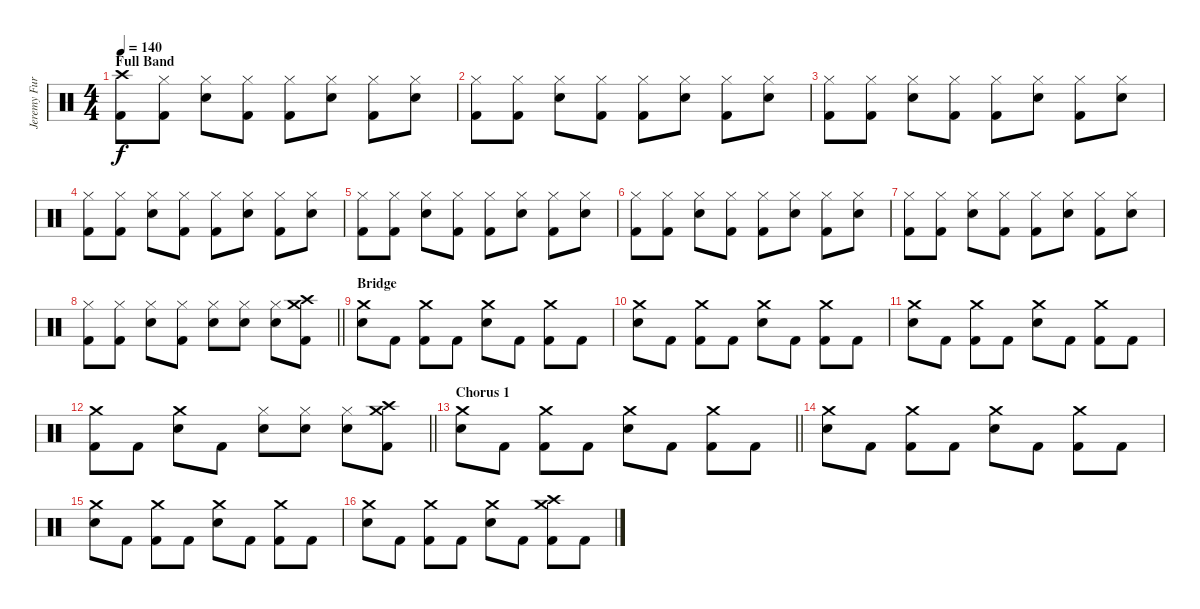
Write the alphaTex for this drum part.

\track ("Jeremy Furstenfeld" "Jeremy Fur") {instrument percussion}
\staff {score}
\articulation defaults
\ts (4 4)
\section ("" "Full Band")
\tempo 140
\clef neutral
\ks c
("Crash high (hit)" "Kick (hit) 2").8{dy f} ("Hi-Hat (closed)" "Kick (hit) 2").8 ("Hi-Hat (closed)" "Snare (hit) 2").8 ("Hi-Hat (closed)" "Kick (hit) 2").8 ("Hi-Hat (closed)" "Kick (hit) 2").8 ("Hi-Hat (closed)" "Snare (hit) 2").8 ("Hi-Hat (closed)" "Kick (hit) 2").8 ("Hi-Hat (closed)" "Snare (hit) 2").8 |
("Hi-Hat (closed)" "Kick (hit) 2").8 ("Hi-Hat (closed)" "Kick (hit) 2").8 ("Hi-Hat (closed)" "Snare (hit) 2").8 ("Hi-Hat (closed)" "Kick (hit) 2").8 ("Hi-Hat (closed)" "Kick (hit) 2").8 ("Hi-Hat (closed)" "Snare (hit) 2").8 ("Hi-Hat (closed)" "Kick (hit) 2").8 ("Hi-Hat (closed)" "Snare (hit) 2").8 |
("Hi-Hat (closed)" "Kick (hit) 2").8 ("Hi-Hat (closed)" "Kick (hit) 2").8 ("Hi-Hat (closed)" "Snare (hit) 2").8 ("Hi-Hat (closed)" "Kick (hit) 2").8 ("Hi-Hat (closed)" "Kick (hit) 2").8 ("Hi-Hat (closed)" "Snare (hit) 2").8 ("Hi-Hat (closed)" "Kick (hit) 2").8 ("Hi-Hat (closed)" "Snare (hit) 2").8 |
("Hi-Hat (closed)" "Kick (hit) 2").8 ("Hi-Hat (closed)" "Kick (hit) 2").8 ("Hi-Hat (closed)" "Snare (hit) 2").8 ("Hi-Hat (closed)" "Kick (hit) 2").8 ("Hi-Hat (closed)" "Kick (hit) 2").8 ("Hi-Hat (closed)" "Snare (hit) 2").8 ("Hi-Hat (closed)" "Kick (hit) 2").8 ("Hi-Hat (closed)" "Snare (hit) 2").8 |
("Hi-Hat (closed)" "Kick (hit) 2").8 ("Hi-Hat (closed)" "Kick (hit) 2").8 ("Hi-Hat (closed)" "Snare (hit) 2").8 ("Hi-Hat (closed)" "Kick (hit) 2").8 ("Hi-Hat (closed)" "Kick (hit) 2").8 ("Hi-Hat (closed)" "Snare (hit) 2").8 ("Hi-Hat (closed)" "Kick (hit) 2").8 ("Hi-Hat (closed)" "Snare (hit) 2").8 |
("Hi-Hat (closed)" "Kick (hit) 2").8 ("Hi-Hat (closed)" "Kick (hit) 2").8 ("Hi-Hat (closed)" "Snare (hit) 2").8 ("Hi-Hat (closed)" "Kick (hit) 2").8 ("Hi-Hat (closed)" "Kick (hit) 2").8 ("Hi-Hat (closed)" "Snare (hit) 2").8 ("Hi-Hat (closed)" "Kick (hit) 2").8 ("Hi-Hat (closed)" "Snare (hit) 2").8 |
("Hi-Hat (closed)" "Kick (hit) 2").8 ("Hi-Hat (closed)" "Kick (hit) 2").8 ("Hi-Hat (closed)" "Snare (hit) 2").8 ("Hi-Hat (closed)" "Kick (hit) 2").8 ("Hi-Hat (closed)" "Kick (hit) 2").8 ("Hi-Hat (closed)" "Snare (hit) 2").8 ("Hi-Hat (closed)" "Kick (hit) 2").8 ("Hi-Hat (closed)" "Snare (hit) 2").8 |
\barLineRight lightlight
("Hi-Hat (closed)" "Kick (hit) 2").8 ("Hi-Hat (closed)" "Kick (hit) 2").8 ("Hi-Hat (closed)" "Snare (hit) 2").8 ("Hi-Hat (closed)" "Kick (hit) 2").8 ("Hi-Hat (closed)" "Snare (hit) 2").8 ("Hi-Hat (closed)" "Snare (hit) 2").8 ("Hi-Hat (closed)" "Snare (hit) 2").8 ("Crash medium (hit)" "Crash high (hit)" "Kick (hit) 2").8 |
\section ("" "Bridge")
("Crash medium (hit)" "Snare (hit) 2").8 "Kick (hit) 2".8 ("Crash medium (hit)" "Kick (hit) 2").8 "Kick (hit) 2".8 ("Crash medium (hit)" "Snare (hit) 2").8 "Kick (hit) 2".8 ("Crash medium (hit)" "Kick (hit) 2").8 "Kick (hit) 2".8 |
("Crash medium (hit)" "Snare (hit) 2").8 "Kick (hit) 2".8 ("Crash medium (hit)" "Kick (hit) 2").8 "Kick (hit) 2".8 ("Crash medium (hit)" "Snare (hit) 2").8 "Kick (hit) 2".8 ("Crash medium (hit)" "Kick (hit) 2").8 "Kick (hit) 2".8 |
("Crash medium (hit)" "Snare (hit) 2").8 "Kick (hit) 2".8 ("Crash medium (hit)" "Kick (hit) 2").8 "Kick (hit) 2".8 ("Crash medium (hit)" "Snare (hit) 2").8 "Kick (hit) 2".8 ("Crash medium (hit)" "Kick (hit) 2").8 "Kick (hit) 2".8 |
\barLineRight lightlight
("Crash medium (hit)" "Kick (hit) 2").8 "Kick (hit) 2".8 ("Crash medium (hit)" "Snare (hit) 2").8 "Kick (hit) 2".8 ("Hi-Hat (closed)" "Snare (hit) 2").8 ("Hi-Hat (closed)" "Snare (hit) 2").8 ("Hi-Hat (closed)" "Snare (hit) 2").8 ("Crash medium (hit)" "Crash high (hit)" "Kick (hit) 2").8 |
\section ("" "Chorus 1")
\barLineRight lightlight
("Crash medium (hit)" "Snare (hit) 2").8 "Kick (hit) 2".8 ("Crash medium (hit)" "Kick (hit) 2").8 "Kick (hit) 2".8 ("Crash medium (hit)" "Snare (hit) 2").8 "Kick (hit) 2".8 ("Crash medium (hit)" "Kick (hit) 2").8 "Kick (hit) 2".8 |
("Crash medium (hit)" "Snare (hit) 2").8 "Kick (hit) 2".8 ("Crash medium (hit)" "Kick (hit) 2").8 "Kick (hit) 2".8 ("Crash medium (hit)" "Snare (hit) 2").8 "Kick (hit) 2".8 ("Crash medium (hit)" "Kick (hit) 2").8 "Kick (hit) 2".8 |
("Crash medium (hit)" "Snare (hit) 2").8 "Kick (hit) 2".8 ("Crash medium (hit)" "Kick (hit) 2").8 "Kick (hit) 2".8 ("Crash medium (hit)" "Snare (hit) 2").8 "Kick (hit) 2".8 ("Crash medium (hit)" "Kick (hit) 2").8 "Kick (hit) 2".8 |
("Crash medium (hit)" "Snare (hit) 2").8 "Kick (hit) 2".8 ("Crash medium (hit)" "Kick (hit) 2").8 "Kick (hit) 2".8 ("Crash medium (hit)" "Snare (hit) 2").8 "Kick (hit) 2".8 ("Crash medium (hit)" "Crash high (hit)" "Kick (hit) 2").8 "Kick (hit) 2".8
